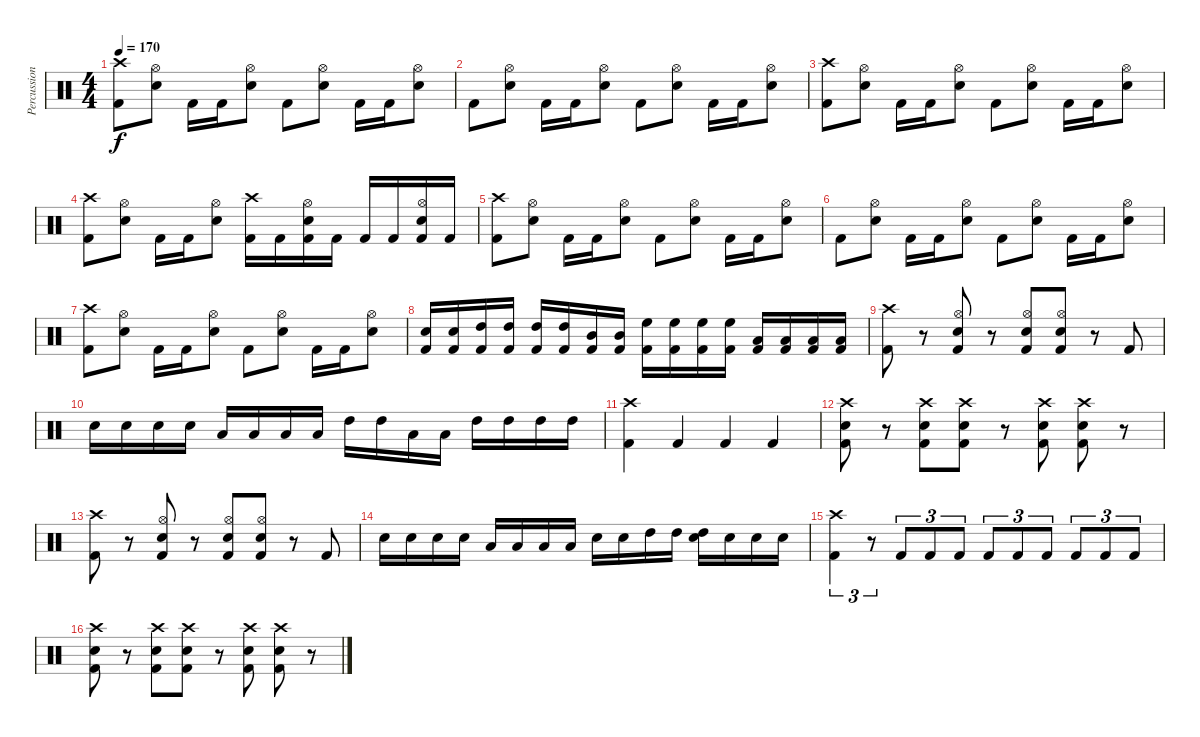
\track ("Percussion" "Percussion") {instrument percussion}
\staff {score}
\articulation defaults
\ts (4 4)
\tempo 170
\clef neutral
\ks c
("Crash high (hit)" "Kick (hit) 2").8{dy f} ("Hi-Hat (open)" "Snare (hit) 2").8 "Kick (hit) 2".16 "Kick (hit) 2".16 ("Hi-Hat (open)" "Snare (hit) 2").8 "Kick (hit) 2".8 ("Hi-Hat (open)" "Snare (hit) 2").8 "Kick (hit) 2".16 "Kick (hit) 2".16 ("Hi-Hat (open)" "Snare (hit) 2").8 |
"Kick (hit) 2".8 ("Hi-Hat (open)" "Snare (hit) 2").8 "Kick (hit) 2".16 "Kick (hit) 2".16 ("Hi-Hat (open)" "Snare (hit) 2").8 "Kick (hit) 2".8 ("Hi-Hat (open)" "Snare (hit) 2").8 "Kick (hit) 2".16 "Kick (hit) 2".16 ("Hi-Hat (open)" "Snare (hit) 2").8 |
("Crash high (hit)" "Kick (hit) 2").8 ("Hi-Hat (open)" "Snare (hit) 2").8 "Kick (hit) 2".16 "Kick (hit) 2".16 ("Hi-Hat (open)" "Snare (hit) 2").8 "Kick (hit) 2".8 ("Hi-Hat (open)" "Snare (hit) 2").8 "Kick (hit) 2".16 "Kick (hit) 2".16 ("Hi-Hat (open)" "Snare (hit) 2").8 |
("Crash high (hit)" "Kick (hit) 2").8 ("Hi-Hat (open)" "Snare (hit) 2").8 "Kick (hit) 2".16 "Kick (hit) 2".16 ("Hi-Hat (open)" "Snare (hit) 2").8 ("Crash high (hit)" "Kick (hit) 2").16 "Kick (hit) 2".16 ("Hi-Hat (open)" "Snare (hit) 2" "Kick (hit) 2").16 "Kick (hit) 2".16 "Kick (hit) 2".16 "Kick (hit) 2".16 ("Hi-Hat (open)" "Snare (hit) 2" "Kick (hit) 2").16 "Kick (hit) 2".16 |
("Crash high (hit)" "Kick (hit) 2").8 ("Hi-Hat (open)" "Snare (hit) 2").8 "Kick (hit) 2".16 "Kick (hit) 2".16 ("Hi-Hat (open)" "Snare (hit) 2").8 "Kick (hit) 2".8 ("Hi-Hat (open)" "Snare (hit) 2").8 "Kick (hit) 2".16 "Kick (hit) 2".16 ("Hi-Hat (open)" "Snare (hit) 2").8 |
"Kick (hit) 2".8 ("Hi-Hat (open)" "Snare (hit) 2").8 "Kick (hit) 2".16 "Kick (hit) 2".16 ("Hi-Hat (open)" "Snare (hit) 2").8 "Kick (hit) 2".8 ("Hi-Hat (open)" "Snare (hit) 2").8 "Kick (hit) 2".16 "Kick (hit) 2".16 ("Hi-Hat (open)" "Snare (hit) 2").8 |
("Crash high (hit)" "Kick (hit) 2").8 ("Hi-Hat (open)" "Snare (hit) 2").8 "Kick (hit) 2".16 "Kick (hit) 2".16 ("Hi-Hat (open)" "Snare (hit) 2").8 "Kick (hit) 2".8 ("Hi-Hat (open)" "Snare (hit) 2").8 "Kick (hit) 2".16 "Kick (hit) 2".16 ("Hi-Hat (open)" "Snare (hit) 2").8 |
("Snare (hit) 2" "Kick (hit) 2").16 ("Snare (hit) 2" "Kick (hit) 2").16 ("High Tom (hit)" "Kick (hit) 2").16 ("High Tom (hit)" "Kick (hit) 2").16 ("High Tom (hit)" "Kick (hit) 2").16 ("High Tom (hit)" "Kick (hit) 2").16 ("Mid Tom (hit)" "Kick (hit) 2").16 ("Mid Tom (hit)" "Kick (hit) 2").16 ("High Floor Tom (hit)" "Kick (hit) 2").16 ("High Floor Tom (hit)" "Kick (hit) 2").16 ("High Floor Tom (hit)" "Kick (hit) 2").16 ("High Floor Tom (hit)" "Kick (hit) 2").16 ("Low Tom (hit)" "Kick (hit) 2").16 ("Low Tom (hit)" "Kick (hit) 2").16 ("Low Tom (hit)" "Kick (hit) 2").16 ("Low Tom (hit)" "Kick (hit) 2").16 |
("Crash high (hit)" "Kick (hit) 2").8 r.8 ("Hi-Hat (open)" "Snare (hit) 2" "Kick (hit) 2").8 r.8 ("Hi-Hat (open)" "Snare (hit) 2" "Kick (hit) 2").8 ("Hi-Hat (open)" "Snare (hit) 2" "Kick (hit) 2").8 r.8 "Kick (hit) 2".8 |
"Snare (hit) 2".16 "Snare (hit) 2".16 "Snare (hit) 2".16 "Snare (hit) 2".16 "Low Tom (hit)".16 "Low Tom (hit)".16 "Low Tom (hit)".16 "Low Tom (hit)".16 "High Tom (hit)".16 "High Tom (hit)".16 "Low Tom (hit)".16 "Low Tom (hit)".16 "High Tom (hit)".16 "High Tom (hit)".16 "High Tom (hit)".16 "High Tom (hit)".16 |
("Crash high (hit)" "Kick (hit) 2").4 "Kick (hit) 2".4 "Kick (hit) 2".4 "Kick (hit) 2".4 |
("Crash high (hit)" "Snare (hit) 2" "Kick (hit) 2").8 r.8 ("Crash high (hit)" "Snare (hit) 2" "Kick (hit) 2").8 ("Crash high (hit)" "Snare (hit) 2" "Kick (hit) 2").8 r.8 ("Crash high (hit)" "Snare (hit) 2" "Kick (hit) 2").8 ("Crash high (hit)" "Snare (hit) 2" "Kick (hit) 2").8 r.8 |
("Crash high (hit)" "Kick (hit) 2").8 r.8 ("Hi-Hat (open)" "Snare (hit) 2" "Kick (hit) 2").8 r.8 ("Hi-Hat (open)" "Snare (hit) 2" "Kick (hit) 2").8 ("Hi-Hat (open)" "Snare (hit) 2" "Kick (hit) 2").8 r.8 "Kick (hit) 2".8 |
"Snare (hit) 2".16 "Snare (hit) 2".16 "Snare (hit) 2".16 "Snare (hit) 2".16 "Low Tom (hit)".16 "Low Tom (hit)".16 "Low Tom (hit)".16 "Low Tom (hit)".16 "Snare (hit) 2".16 "Snare (hit) 2".16 "High Tom (hit)".16 "High Tom (hit)".16 ("High Tom (hit)" "Snare (hit) 2").16 "Snare (hit) 2".16 "Snare (hit) 2".16 "Snare (hit) 2".16 |
("Crash high (hit)" "Kick (hit) 2").4{tu (3 2)} r.8{tu (3 2)} "Kick (hit) 2".8{tu (3 2)} "Kick (hit) 2".8{tu (3 2)} "Kick (hit) 2".8{tu (3 2)} "Kick (hit) 2".8{tu (3 2)} "Kick (hit) 2".8{tu (3 2)} "Kick (hit) 2".8{tu (3 2)} "Kick (hit) 2".8{tu (3 2)} "Kick (hit) 2".8{tu (3 2)} "Kick (hit) 2".8{tu (3 2)} |
("Crash high (hit)" "Snare (hit) 2" "Kick (hit) 2").8 r.8 ("Crash high (hit)" "Snare (hit) 2" "Kick (hit) 2").8 ("Crash high (hit)" "Snare (hit) 2" "Kick (hit) 2").8 r.8 ("Crash high (hit)" "Snare (hit) 2" "Kick (hit) 2").8 ("Crash high (hit)" "Snare (hit) 2" "Kick (hit) 2").8 r.8
